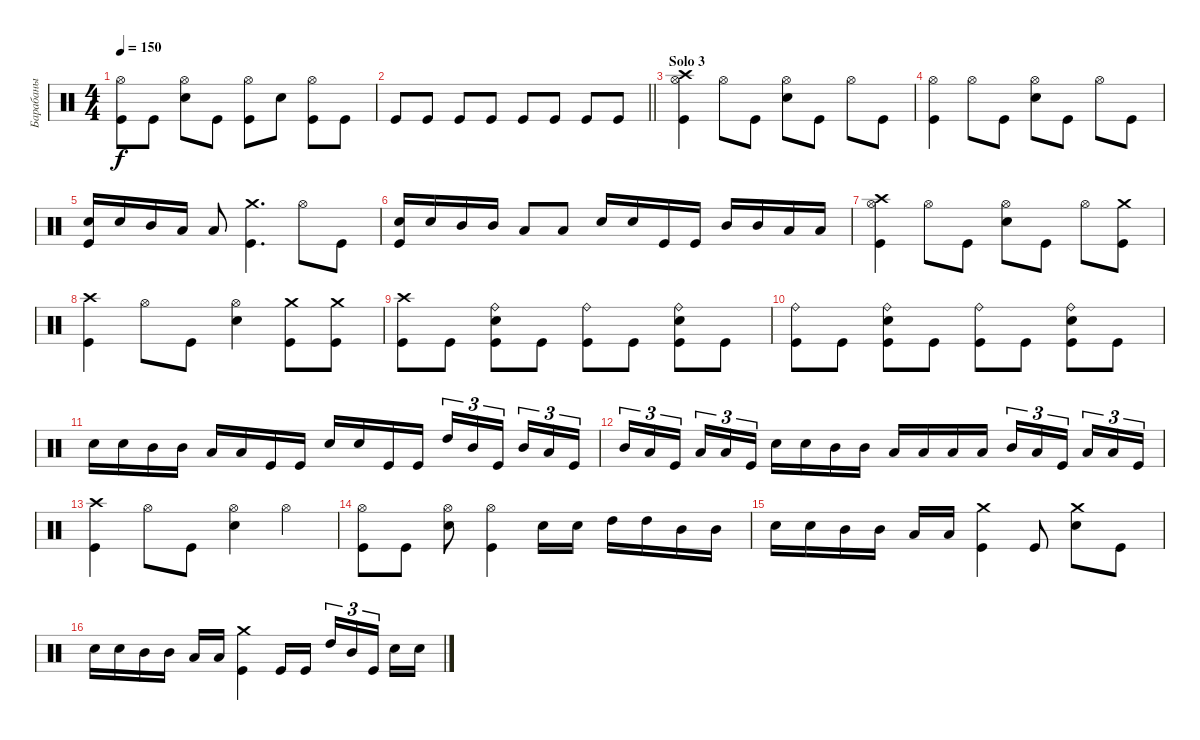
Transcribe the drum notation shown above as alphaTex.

\track ("Барабаны" "Барабаны") {instrument percussion}
\staff {score}
\articulation defaults
\ts (4 4)
\tempo 150
\clef neutral
\ks c
("Hi-Hat (open)" "Kick (hit)").8{dy f} "Kick (hit)".8 ("Hi-Hat (open)" "Snare (hit) 2").8 "Kick (hit)".8 ("Hi-Hat (open)" "Kick (hit)").8 "Snare (hit) 2".8 ("Hi-Hat (open)" "Kick (hit)").8 "Kick (hit)".8 |
\barLineRight lightlight "Kick (hit)".8 "Kick (hit)".8 "Kick (hit)".8 "Kick (hit)".8 "Kick (hit)".8 "Kick (hit)".8 "Kick (hit)".8 "Kick (hit)".8
|
\section ("" "Solo 3")
("Crash high (hit)" "Hi-Hat (open)" "Kick (hit)").4 "Hi-Hat (open)".8 "Kick (hit)".8 ("Hi-Hat (open)" "Snare (hit) 2").8 "Kick (hit)".8 "Hi-Hat (open)".8 "Kick (hit)".8 |
("Hi-Hat (open)" "Kick (hit)").4 "Hi-Hat (open)".8 "Kick (hit)".8 ("Hi-Hat (open)" "Snare (hit) 2").8 "Kick (hit)".8 "Hi-Hat (open)".8 "Kick (hit)".8 |
("Snare (hit) 2" "Kick (hit)").16 "Snare (hit) 2".16 "Mid Tom (hit)".16 "Low Tom (hit)".16 "Low Tom (hit)".8 ("Crash medium (hit)" "Kick (hit)").4{d} "Hi-Hat (open)".8 "Kick (hit)".8 |
("Snare (hit) 2" "Kick (hit)").16 "Snare (hit) 2".16 "Mid Tom (hit)".16 "Mid Tom (hit)".16 "Low Tom (hit)".8 "Low Tom (hit)".8 "Snare (hit) 2".16 "Snare (hit) 2".16 "Kick (hit)".16 "Kick (hit)".16 "Mid Tom (hit)".16 "Mid Tom (hit)".16 "Low Tom (hit)".16 "Low Tom (hit)".16 |
("Crash high (hit)" "Hi-Hat (open)" "Kick (hit)").4 "Hi-Hat (open)".8 "Kick (hit)".8 ("Hi-Hat (open)" "Snare (hit) 2").8 "Kick (hit)".8 "Hi-Hat (open)".8 ("Crash medium (hit)" "Kick (hit)").8 |
("Crash high (hit)" "Kick (hit)").4 "Hi-Hat (open)".8 "Kick (hit)".8 ("Hi-Hat (open)" "Snare (hit) 2").4 ("Crash medium (hit)" "Kick (hit)").8 ("Crash medium (hit)" "Kick (hit)").8 |
("Crash high (hit)" "Kick (hit)").8 "Kick (hit)".8 ("Ride (bell)" "Snare (hit) 2" "Kick (hit)").8 "Kick (hit)".8 ("Ride (bell)" "Kick (hit)").8 "Kick (hit)".8 ("Ride (bell)" "Snare (hit) 2" "Kick (hit)").8 "Kick (hit)".8 |
("Ride (bell)" "Kick (hit)").8 "Kick (hit)".8 ("Ride (bell)" "Snare (hit) 2" "Kick (hit)").8 "Kick (hit)".8 ("Ride (bell)" "Kick (hit)").8 "Kick (hit)".8 ("Ride (bell)" "Snare (hit) 2" "Kick (hit)").8 "Kick (hit)".8 |
"Snare (hit) 2".16 "Snare (hit) 2".16 "Mid Tom (hit)".16 "Mid Tom (hit)".16 "Low Tom (hit)".16 "Low Tom (hit)".16 "Kick (hit)".16 "Kick (hit)".16 "Snare (hit) 2".16 "Snare (hit) 2".16 "Kick (hit)".16 "Kick (hit)".16 "High Tom (hit)".16{tu (3 2)} "Mid Tom (hit)".16{tu (3 2)} "Kick (hit)".16{tu (3 2) beam splitsecondary} "Mid Tom (hit)".16{tu (3 2)} "Low Tom (hit)".16{tu (3 2)} "Kick (hit)".16{tu (3 2)} |
"Mid Tom (hit)".16{tu (3 2)} "Low Tom (hit)".16{tu (3 2)} "Kick (hit)".16{tu (3 2) beam splitsecondary} "Low Tom (hit)".16{tu (3 2)} "Low Tom (hit)".16{tu (3 2)} "Kick (hit)".16{tu (3 2)} "Snare (hit) 2".16 "Snare (hit) 2".16 "Mid Tom (hit)".16 "Mid Tom (hit)".16 "Low Tom (hit)".16 "Low Tom (hit)".16 "Low Tom (hit)".16 "Low Tom (hit)".16 "Mid Tom (hit)".16{tu (3 2)} "Low Tom (hit)".16{tu (3 2)} "Kick (hit)".16{tu (3 2) beam splitsecondary} "Low Tom (hit)".16{tu (3 2)} "Low Tom (hit)".16{tu (3 2)} "Kick (hit)".16{tu (3 2)} |
("Crash high (hit)" "Kick (hit)").4 "Hi-Hat (open)".8 "Kick (hit)".8 ("Hi-Hat (open)" "Snare (hit) 2").4 "Hi-Hat (open)".4 |
("Hi-Hat (open)" "Kick (hit)").8 "Kick (hit)".8 ("Hi-Hat (open)" "Snare (hit) 2").8 ("Hi-Hat (open)" "Kick (hit)").4 "Snare (hit) 2".16 "Snare (hit) 2".16 "High Tom (hit)".16 "High Tom (hit)".16 "Mid Tom (hit)".16 "Mid Tom (hit)".16 |
"Snare (hit) 2".16 "Snare (hit) 2".16 "Mid Tom (hit)".16 "Mid Tom (hit)".16 "Low Tom (hit)".16 "Low Tom (hit)".16 ("Crash medium (hit)" "Kick (hit)").4 "Kick (hit)".8 ("Crash medium (hit)" "Snare (hit) 2").8 "Kick (hit)".8 |
"Snare (hit) 2".16 "Snare (hit) 2".16 "Mid Tom (hit)".16 "Mid Tom (hit)".16 "Low Tom (hit)".16 "Low Tom (hit)".16 ("Crash medium (hit)" "Kick (hit)").4 "Kick (hit)".16 "Kick (hit)".16 "High Tom (hit)".16{tu (3 2)} "Mid Tom (hit)".16{tu (3 2)} "Kick (hit)".16{tu (3 2) beam splitsecondary} "Snare (hit) 2".16 "Snare (hit) 2".16
